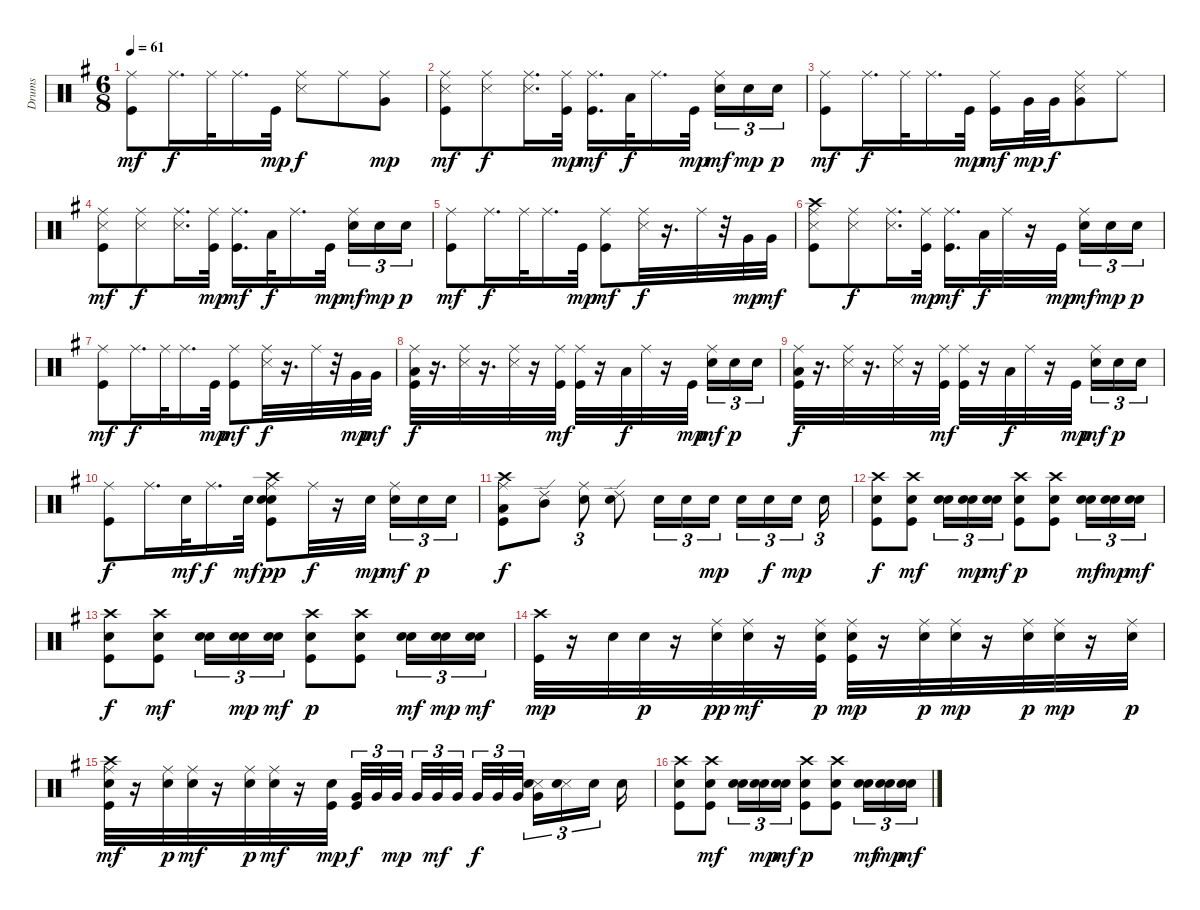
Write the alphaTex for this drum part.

\track ("Drums" "Drums") {instrument percussion}
\staff {score}
\articulation defaults
\ts (6 8)
\tempo 61
\clef neutral
\ks g
("Kick (hit)" "Ride (middle)").8{dy mf} "Ride (middle)".16{d dy f} "Ride (middle)".32 "Ride (middle)".16{d} "Kick (hit)".32{dy mp} ("Snare (side stick) 3" "Ride (middle)").8{dy f} "Ride (middle)".8 ("Very Low Tom (hit)" "Ride (middle)").8{dy mp} |
("Kick (hit)" "Snare (side stick) 3" "Ride (middle)").8{dy mf} ("Snare (side stick) 3" "Ride (middle)").8{dy f} ("Snare (side stick) 3" "Ride (middle)").16{d} ("Kick (hit)" "Ride (middle)").32{dy mp} ("Kick (hit)" "Ride (middle)").16{d dy mf} "Low Tom (hit)".32{dy f} "Ride (middle)".16{d} "Kick (hit)".32{dy mp beam splitsecondary} ("Electric Snare (hit)" "Ride (middle)").16{tu (3 2) dy mf} "Electric Snare (hit)".16{tu (3 2) dy mp} "Electric Snare (hit)".16{tu (3 2) dy p} |
("Kick (hit)" "Ride (middle)").8{dy mf} "Ride (middle)".16{d dy f} "Ride (middle)".32 "Ride (middle)".16{d} "Kick (hit)".32{dy mp} ("Kick (hit)" "Ride (middle)").16{dy mf} "Very Low Tom (hit)".32{dy mp} "Very Low Tom (hit)".32{dy f} ("Snare (side stick) 3" "Very Low Tom (hit)" "Ride (middle)").8 "Ride (middle)".8 |
("Kick (hit)" "Snare (side stick) 3" "Ride (middle)").8{dy mf} ("Snare (side stick) 3" "Ride (middle)").8{dy f} ("Snare (side stick) 3" "Ride (middle)").16{d} ("Kick (hit)" "Ride (middle)").32{dy mp} ("Kick (hit)" "Ride (middle)").16{d dy mf} "Low Tom (hit)".32{dy f} "Ride (middle)".16{d} "Kick (hit)".32{dy mp beam splitsecondary} ("Electric Snare (hit)" "Ride (middle)").16{tu (3 2) dy mf} "Electric Snare (hit)".16{tu (3 2) dy mp} "Electric Snare (hit)".16{tu (3 2) dy p} |
("Kick (hit)" "Ride (middle)").8{dy mf} "Ride (middle)".16{d dy f} "Ride (middle)".32 "Ride (middle)".16{d} "Kick (hit)".32{dy mp} ("Kick (hit)" "Ride (middle)").8{dy mf} ("Snare (side stick) 3" "Ride (middle)").32{dy f} r.16{d} "Ride (middle)".32 r.32 "Very Low Tom (hit)".32{dy mp} "Very Low Tom (hit)".32{dy mf} |
("Kick (hit)" "Snare (side stick) 3" "Ride (middle)" "Crash high (hit)").8 ("Snare (side stick) 3" "Ride (middle)").8{dy f} ("Snare (side stick) 3" "Ride (middle)").16{d} ("Kick (hit)" "Ride (middle)").32{dy mp} ("Kick (hit)" "Ride (middle)").16{d dy mf} "Low Tom (hit)".32{dy f} "Ride (middle)".32 r.16 "Kick (hit)".32{dy mp beam splitsecondary} ("Electric Snare (hit)" "Ride (middle)").16{tu (3 2) dy mf} "Electric Snare (hit)".16{tu (3 2) dy mp} "Electric Snare (hit)".16{tu (3 2) dy p} |
("Kick (hit)" "Ride (middle)").8{dy mf} "Ride (middle)".16{d dy f} "Ride (middle)".32 "Ride (middle)".16{d} "Kick (hit)".32{dy mp} ("Kick (hit)" "Ride (middle)").8{dy mf} ("Snare (side stick) 3" "Ride (middle)").32{dy f} r.16{d} "Ride (middle)".32 r.32 "Very Low Tom (hit)".32{dy mp} "Very Low Tom (hit)".32{dy mf} |
("Kick (hit)" "Low Floor Tom (hit)" "Ride (middle)").32{dy f} r.16{d} ("Snare (side stick) 3" "Ride (middle)").32 r.16{d} ("Snare (side stick) 3" "Ride (middle)").32 r.16 ("Kick (hit)" "Ride (middle)").32{dy mf} ("Kick (hit)" "Ride (middle)").32 r.16 "Low Tom (hit)".32{dy f} "Ride (middle)".32 r.16 "Kick (hit)".32{dy mp beam splitsecondary} ("Electric Snare (hit)" "Ride (middle)").16{tu (3 2) dy mf} "Electric Snare (hit)".16{tu (3 2) dy p} "Electric Snare (hit)".16{tu (3 2)} |
("Kick (hit)" "Low Floor Tom (hit)" "Ride (middle)").32{dy f} r.16{d} ("Snare (side stick) 3" "Ride (middle)").32 r.16{d} ("Snare (side stick) 3" "Ride (middle)").32 r.16 ("Kick (hit)" "Ride (middle)").32{dy mf} ("Kick (hit)" "Ride (middle)").32 r.16 "Low Tom (hit)".32{dy f} "Ride (middle)".32 r.16 "Kick (hit)".32{dy mp beam splitsecondary} ("Snare (hit) 2" "Ride (middle)").16{tu (3 2) dy mf} "Snare (hit) 2".16{tu (3 2) dy p} "Snare (hit) 2".16{tu (3 2)} |
("Kick (hit)" "Ride (middle)").8{dy f} "Ride (middle)".16{d} "Snare (hit) 2".32{dy mf} "Ride (middle)".16{d dy f} "Electric Snare (hit)".32{dy mf} ("Kick (hit)" "Snare (hit) 2" "Electric Snare (hit)" "Ride (middle)" "Crash high (hit)").8{dy pp} "Ride (middle)".32{dy f} r.16 "Electric Snare (hit)".32{dy mp beam splitsecondary} ("Electric Snare (hit)" "Ride (middle)").16{tu (3 2) dy mf} "Electric Snare (hit)".16{tu (3 2) dy p} "Electric Snare (hit)".16{tu (3 2)} |
("Kick (hit)" "Low Tom (hit)" "Crash high (hit)" "Ride (middle)").8{dy f} ("Mid Tom (hit)" "Ride (edge) 2").8 ("Electric Snare (hit)" "Ride (middle)").8{tu (3 2)} ("Electric Snare (hit)" "Ride (edge) 2").8 "Electric Snare (hit)".16{tu (3 2)} "Electric Snare (hit)".16{tu (3 2)} "Electric Snare (hit)".16{tu (3 2) dy mp beam splitsecondary} "Electric Snare (hit)".16{tu (3 2)} "Electric Snare (hit)".16{tu (3 2) dy f} "Electric Snare (hit)".16{tu (3 2) dy mp beam splitsecondary} "Electric Snare (hit)".16{tu (3 2)} |
("Kick (hit)" "Electric Snare (hit)" "Crash high (hit)").8{dy f} ("Kick (hit)" "Electric Snare (hit)" "Crash high (hit)").8{dy mf} ("Snare (hit) 2" "Electric Snare (hit)").16{tu (3 2)} ("Snare (hit) 2" "Electric Snare (hit)").16{tu (3 2) dy mp} ("Snare (hit) 2" "Electric Snare (hit)").16{tu (3 2) dy mf} ("Kick (hit)" "Electric Snare (hit)" "Crash high (hit)").8{dy p} ("Kick (hit)" "Electric Snare (hit)" "Crash high (hit)").8 ("Snare (hit) 2" "Electric Snare (hit)").16{tu (3 2) dy mf} ("Snare (hit) 2" "Electric Snare (hit)").16{tu (3 2) dy mp} ("Snare (hit) 2" "Electric Snare (hit)").16{tu (3 2) dy mf} |
("Kick (hit)" "Electric Snare (hit)" "Crash high (hit)").8{dy f} ("Kick (hit)" "Electric Snare (hit)" "Crash high (hit)").8{dy mf} ("Snare (hit) 2" "Electric Snare (hit)").16{tu (3 2)} ("Snare (hit) 2" "Electric Snare (hit)").16{tu (3 2) dy mp} ("Snare (hit) 2" "Electric Snare (hit)").16{tu (3 2) dy mf} ("Kick (hit)" "Electric Snare (hit)" "Crash high (hit)").8{dy p} ("Kick (hit)" "Electric Snare (hit)" "Crash high (hit)").8 ("Snare (hit) 2" "Electric Snare (hit)").16{tu (3 2) dy mf} ("Snare (hit) 2" "Electric Snare (hit)").16{tu (3 2) dy mp} ("Snare (hit) 2" "Electric Snare (hit)").16{tu (3 2) dy mf} |
("Kick (hit)" "Crash high (hit)").32{dy mp} r.16 "Electric Snare (hit)".32 "Electric Snare (hit)".32{dy p} r.16 ("Electric Snare (hit)" "Ride (middle)").32{dy pp} ("Electric Snare (hit)" "Ride (middle)").32{dy mf} r.16 ("Ride (middle)" "Kick (hit)" "Electric Snare (hit)").32{dy p} ("Kick (hit)" "Electric Snare (hit)" "Ride (middle)").32{dy mp} r.16 ("Ride (middle)" "Electric Snare (hit)").32{dy p} ("Electric Snare (hit)" "Ride (middle)").32{dy mp} r.16 ("Electric Snare (hit)" "Ride (middle)").32{dy p} ("Electric Snare (hit)" "Ride (middle)").32{dy mp} r.16 ("Electric Snare (hit)" "Ride (middle)").32{dy p} |
("Kick (hit)" "Electric Snare (hit)" "Crash high (hit)" "Ride (middle)").32{dy mf} r.16 ("Electric Snare (hit)" "Ride (middle)").32{dy p} ("Electric Snare (hit)" "Ride (middle)").32{dy mf} r.16 ("Electric Snare (hit)" "Ride (middle)").32{dy p} ("Electric Snare (hit)" "Ride (middle)").32{dy mf} r.16 ("Kick (hit)" "Electric Snare (hit)").32{dy mp} ("Kick (hit)" "Very Low Tom (hit)").32{tu (3 2) dy f} "Very Low Tom (hit)".32{tu (3 2)} "Very Low Tom (hit)".32{tu (3 2) dy mp beam splitsecondary} "Very Low Tom (hit)".32{tu (3 2)} "Very Low Tom (hit)".32{tu (3 2) dy mf} "Very Low Tom (hit)".32{tu (3 2) beam splitsecondary} "Very Low Tom (hit)".32{tu (3 2) dy f} "Very Low Tom (hit)".32{tu (3 2)} "Very Low Tom (hit)".32{tu (3 2) beam splitsecondary} ("Very Low Tom (hit)" "Snare (side stick) 3" "Electric Snare (hit)").16{tu (3 2)} ("Snare (side stick) 3" "Electric Snare (hit)").16{tu (3 2)} "Electric Snare (hit)".16{tu (3 2) beam splitsecondary} "Electric Snare (hit)".16 |
("Kick (hit)" "Electric Snare (hit)" "Crash high (hit)").8 ("Kick (hit)" "Electric Snare (hit)" "Crash high (hit)").8{dy mf} ("Snare (hit) 2" "Electric Snare (hit)").16{tu (3 2)} ("Snare (hit) 2" "Electric Snare (hit)").16{tu (3 2) dy mp} ("Snare (hit) 2" "Electric Snare (hit)").16{tu (3 2) dy mf} ("Kick (hit)" "Electric Snare (hit)" "Crash high (hit)").8{dy p} ("Kick (hit)" "Electric Snare (hit)" "Crash high (hit)").8 ("Snare (hit) 2" "Electric Snare (hit)").16{tu (3 2) dy mf} ("Snare (hit) 2" "Electric Snare (hit)").16{tu (3 2) dy mp} ("Snare (hit) 2" "Electric Snare (hit)").16{tu (3 2) dy mf}
